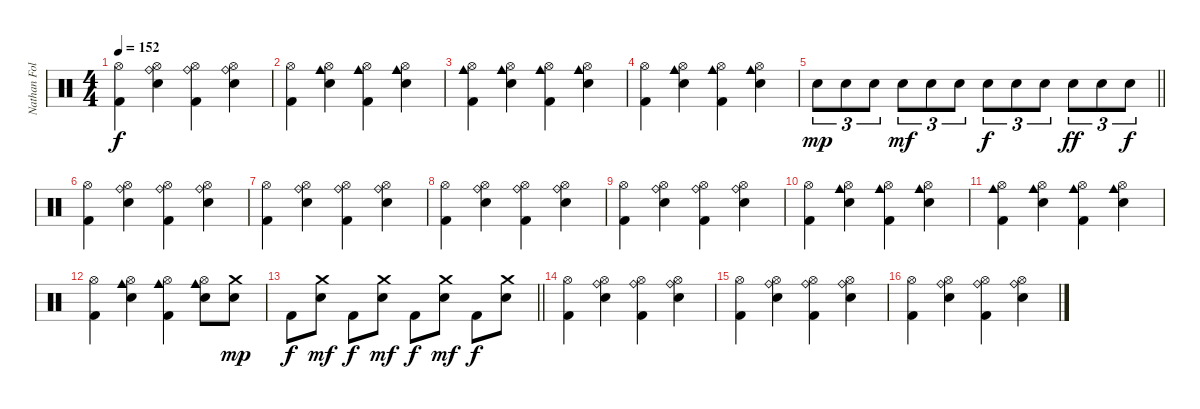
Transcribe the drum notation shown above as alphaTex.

\track ("Nathan Followill" "Nathan Fol") {instrument percussion}
\staff {score}
\articulation defaults
\ts (4 4)
\tempo 152
\clef neutral
\ks c
("Hi-Hat (open)" "Kick (hit) 2").4{dy f} ("Hi-Hat (open)" "Ride (bell)" "Electric Snare (hit)").4 ("Hi-Hat (open)" "Ride (bell)" "Kick (hit) 2").4 ("Hi-Hat (open)" "Ride (bell)" "Electric Snare (hit)").4 |
("Hi-Hat (open)" "Kick (hit) 2").4 ("Hi-Hat (open)" "Cowbell medium (hit)" "Electric Snare (hit)").4 ("Hi-Hat (open)" "Cowbell medium (hit)" "Kick (hit) 2").4 ("Hi-Hat (open)" "Cowbell medium (hit)" "Electric Snare (hit)").4 |
("Hi-Hat (open)" "Cowbell medium (hit)" "Kick (hit) 2").4 ("Hi-Hat (open)" "Cowbell medium (hit)" "Electric Snare (hit)").4 ("Hi-Hat (open)" "Cowbell medium (hit)" "Kick (hit) 2").4 ("Hi-Hat (open)" "Cowbell medium (hit)" "Electric Snare (hit)").4 |
("Hi-Hat (open)" "Kick (hit) 2").4 ("Hi-Hat (open)" "Cowbell medium (hit)" "Electric Snare (hit)").4 ("Hi-Hat (open)" "Cowbell medium (hit)" "Kick (hit) 2").4 ("Hi-Hat (open)" "Cowbell medium (hit)" "Electric Snare (hit)").4 |
\barLineRight lightlight "Electric Snare (hit)".8{tu (3 2) dy mp} "Electric Snare (hit)".8{tu (3 2)} "Electric Snare (hit)".8{tu (3 2)} "Electric Snare (hit)".8{tu (3 2) dy mf} "Electric Snare (hit)".8{tu (3 2)} "Electric Snare (hit)".8{tu (3 2)} "Electric Snare (hit)".8{tu (3 2) dy f} "Electric Snare (hit)".8{tu (3 2)} "Electric Snare (hit)".8{tu (3 2)} "Electric Snare (hit)".8{tu (3 2) dy ff} "Electric Snare (hit)".8{tu (3 2)} "Electric Snare (hit)".8{tu (3 2) dy f}
|
\section ("" "")
("Hi-Hat (open)" "Kick (hit) 2").4 ("Hi-Hat (open)" "Ride (bell)" "Electric Snare (hit)").4 ("Hi-Hat (open)" "Ride (bell)" "Kick (hit) 2").4 ("Hi-Hat (open)" "Ride (bell)" "Electric Snare (hit)").4 |
("Hi-Hat (open)" "Kick (hit) 2").4 ("Hi-Hat (open)" "Ride (bell)" "Electric Snare (hit)").4 ("Hi-Hat (open)" "Ride (bell)" "Kick (hit) 2").4 ("Hi-Hat (open)" "Ride (bell)" "Electric Snare (hit)").4 |
("Hi-Hat (open)" "Kick (hit) 2").4 ("Hi-Hat (open)" "Ride (bell)" "Electric Snare (hit)").4 ("Hi-Hat (open)" "Ride (bell)" "Kick (hit) 2").4 ("Hi-Hat (open)" "Ride (bell)" "Electric Snare (hit)").4 |
("Hi-Hat (open)" "Kick (hit) 2").4 ("Hi-Hat (open)" "Ride (bell)" "Electric Snare (hit)").4 ("Hi-Hat (open)" "Ride (bell)" "Kick (hit) 2").4 ("Hi-Hat (open)" "Ride (bell)" "Electric Snare (hit)").4 |
("Hi-Hat (open)" "Kick (hit) 2").4 ("Hi-Hat (open)" "Cowbell medium (hit)" "Electric Snare (hit)").4 ("Hi-Hat (open)" "Cowbell medium (hit)" "Kick (hit) 2").4 ("Hi-Hat (open)" "Cowbell medium (hit)" "Electric Snare (hit)").4 |
("Hi-Hat (open)" "Cowbell medium (hit)" "Kick (hit) 2").4 ("Hi-Hat (open)" "Cowbell medium (hit)" "Electric Snare (hit)").4 ("Hi-Hat (open)" "Cowbell medium (hit)" "Kick (hit) 2").4 ("Hi-Hat (open)" "Cowbell medium (hit)" "Electric Snare (hit)").4 |
("Hi-Hat (open)" "Kick (hit) 2").4 ("Hi-Hat (open)" "Cowbell medium (hit)" "Electric Snare (hit)").4 ("Hi-Hat (open)" "Cowbell medium (hit)" "Kick (hit) 2").4 ("Hi-Hat (open)" "Cowbell medium (hit)" "Electric Snare (hit)").8 ("Crash medium (hit)" "Electric Snare (hit)").8{dy mp} |
\barLineRight lightlight "Kick (hit) 2".8{dy f}
("Crash medium (hit)" "Electric Snare (hit)").8{dy mf} "Kick (hit) 2".8{dy f} ("Crash medium (hit)" "Electric Snare (hit)").8{dy mf} "Kick (hit) 2".8{dy f} ("Crash medium (hit)" "Electric Snare (hit)").8{dy mf} "Kick (hit) 2".8{dy f} ("Crash medium (hit)" "Electric Snare (hit)").8 |
\section ("" "")
("Hi-Hat (open)" "Kick (hit) 2").4 ("Hi-Hat (open)" "Ride (bell)" "Electric Snare (hit)").4 ("Hi-Hat (open)" "Ride (bell)" "Kick (hit) 2").4 ("Hi-Hat (open)" "Ride (bell)" "Electric Snare (hit)").4 |
("Hi-Hat (open)" "Kick (hit) 2").4 ("Hi-Hat (open)" "Ride (bell)" "Electric Snare (hit)").4 ("Hi-Hat (open)" "Ride (bell)" "Kick (hit) 2").4 ("Hi-Hat (open)" "Ride (bell)" "Electric Snare (hit)").4 |
("Hi-Hat (open)" "Kick (hit) 2").4 ("Hi-Hat (open)" "Ride (bell)" "Electric Snare (hit)").4 ("Hi-Hat (open)" "Ride (bell)" "Kick (hit) 2").4 ("Hi-Hat (open)" "Ride (bell)" "Electric Snare (hit)").4
